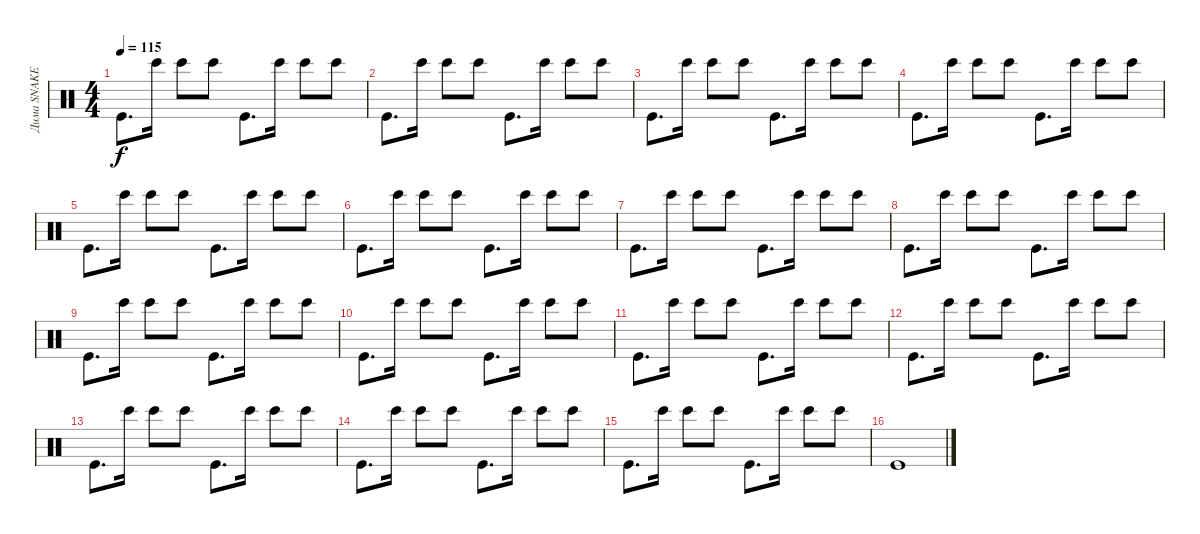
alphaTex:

\track ("Дима SNAKE Хакимов" "Дима SNAKE") {instrument percussion}
\staff {score}
\articulation defaults
\ts (4 4)
\tempo 115
\clef neutral
\ks c "Kick (hit)".8{d dy f} "Bongo High (hit)".16 "Bongo High (hit)".8 "Bongo High (hit)".8 "Kick (hit)".8{d} "Bongo High (hit)".16 "Bongo High (hit)".8 "Bongo High (hit)".8
|
"Kick (hit)".8{d} "Bongo High (hit)".16 "Bongo High (hit)".8 "Bongo High (hit)".8 "Kick (hit)".8{d} "Bongo High (hit)".16 "Bongo High (hit)".8 "Bongo High (hit)".8 |
"Kick (hit)".8{d} "Bongo High (hit)".16 "Bongo High (hit)".8 "Bongo High (hit)".8 "Kick (hit)".8{d} "Bongo High (hit)".16 "Bongo High (hit)".8 "Bongo High (hit)".8 |
"Kick (hit)".8{d} "Bongo High (hit)".16 "Bongo High (hit)".8 "Bongo High (hit)".8 "Kick (hit)".8{d} "Bongo High (hit)".16 "Bongo High (hit)".8 "Bongo High (hit)".8 |
"Kick (hit)".8{d} "Bongo High (hit)".16 "Bongo High (hit)".8 "Bongo High (hit)".8 "Kick (hit)".8{d} "Bongo High (hit)".16 "Bongo High (hit)".8 "Bongo High (hit)".8 |
"Kick (hit)".8{d} "Bongo High (hit)".16 "Bongo High (hit)".8 "Bongo High (hit)".8 "Kick (hit)".8{d} "Bongo High (hit)".16 "Bongo High (hit)".8 "Bongo High (hit)".8 |
"Kick (hit)".8{d} "Bongo High (hit)".16 "Bongo High (hit)".8 "Bongo High (hit)".8 "Kick (hit)".8{d} "Bongo High (hit)".16 "Bongo High (hit)".8 "Bongo High (hit)".8 |
"Kick (hit)".8{d} "Bongo High (hit)".16 "Bongo High (hit)".8 "Bongo High (hit)".8 "Kick (hit)".8{d} "Bongo High (hit)".16 "Bongo High (hit)".8 "Bongo High (hit)".8 |
"Kick (hit)".8{d} "Bongo High (hit)".16 "Bongo High (hit)".8 "Bongo High (hit)".8 "Kick (hit)".8{d} "Bongo High (hit)".16 "Bongo High (hit)".8 "Bongo High (hit)".8 |
"Kick (hit)".8{d} "Bongo High (hit)".16 "Bongo High (hit)".8 "Bongo High (hit)".8 "Kick (hit)".8{d} "Bongo High (hit)".16 "Bongo High (hit)".8 "Bongo High (hit)".8 |
"Kick (hit)".8{d} "Bongo High (hit)".16 "Bongo High (hit)".8 "Bongo High (hit)".8 "Kick (hit)".8{d} "Bongo High (hit)".16 "Bongo High (hit)".8 "Bongo High (hit)".8 |
"Kick (hit)".8{d} "Bongo High (hit)".16 "Bongo High (hit)".8 "Bongo High (hit)".8 "Kick (hit)".8{d} "Bongo High (hit)".16 "Bongo High (hit)".8 "Bongo High (hit)".8 |
"Kick (hit)".8{d} "Bongo High (hit)".16 "Bongo High (hit)".8 "Bongo High (hit)".8 "Kick (hit)".8{d} "Bongo High (hit)".16 "Bongo High (hit)".8 "Bongo High (hit)".8 |
"Kick (hit)".8{d} "Bongo High (hit)".16 "Bongo High (hit)".8 "Bongo High (hit)".8 "Kick (hit)".8{d} "Bongo High (hit)".16 "Bongo High (hit)".8 "Bongo High (hit)".8 |
"Kick (hit)".8{d} "Bongo High (hit)".16 "Bongo High (hit)".8 "Bongo High (hit)".8 "Kick (hit)".8{d} "Bongo High (hit)".16 "Bongo High (hit)".8 "Bongo High (hit)".8 |
"Kick (hit)".1
